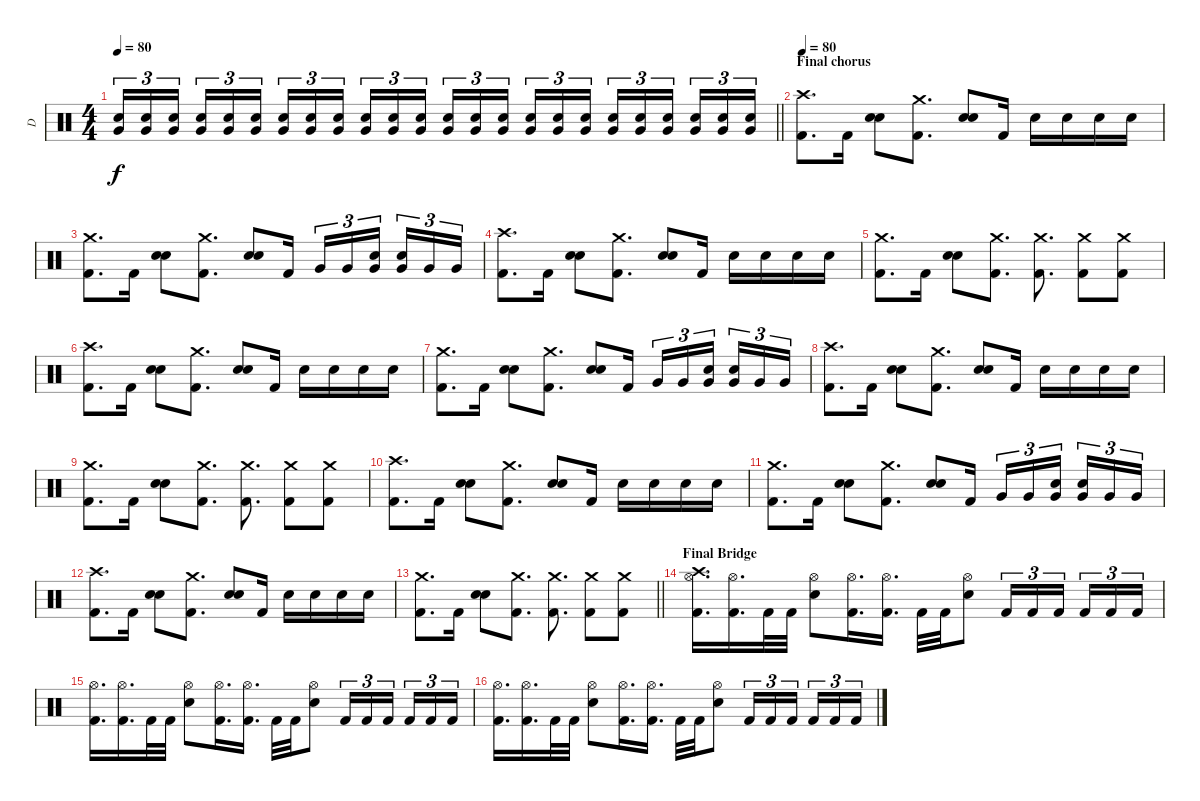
\track ("D" "D") {instrument percussion}
\staff {score}
\articulation defaults
\ts (4 4)
\tempo 80
\clef neutral
\barLineRight lightlight
\ks c
("Electric Snare (hit)" "Very Low Tom (hit)").16{tu (3 2) dy f volume 13} ("Electric Snare (hit)" "Very Low Tom (hit)").16{tu (3 2)} ("Electric Snare (hit)" "Very Low Tom (hit)").16{tu (3 2) beam splitsecondary} ("Electric Snare (hit)" "Very Low Tom (hit)").16{tu (3 2)} ("Electric Snare (hit)" "Very Low Tom (hit)").16{tu (3 2)} ("Electric Snare (hit)" "Very Low Tom (hit)").16{tu (3 2)} ("Electric Snare (hit)" "Very Low Tom (hit)").16{tu (3 2)} ("Electric Snare (hit)" "Very Low Tom (hit)").16{tu (3 2)} ("Electric Snare (hit)" "Very Low Tom (hit)").16{tu (3 2) beam splitsecondary} ("Electric Snare (hit)" "Very Low Tom (hit)").16{tu (3 2)} ("Electric Snare (hit)" "Very Low Tom (hit)").16{tu (3 2)} ("Electric Snare (hit)" "Very Low Tom (hit)").16{tu (3 2)} ("Electric Snare (hit)" "Very Low Tom (hit)").16{tu (3 2)} ("Electric Snare (hit)" "Very Low Tom (hit)").16{tu (3 2)} ("Electric Snare (hit)" "Very Low Tom (hit)").16{tu (3 2) beam splitsecondary} ("Electric Snare (hit)" "Very Low Tom (hit)").16{tu (3 2)} ("Electric Snare (hit)" "Very Low Tom (hit)").16{tu (3 2)} ("Electric Snare (hit)" "Very Low Tom (hit)").16{tu (3 2)} ("Electric Snare (hit)" "Very Low Tom (hit)").16{tu (3 2)} ("Electric Snare (hit)" "Very Low Tom (hit)").16{tu (3 2)} ("Electric Snare (hit)" "Very Low Tom (hit)").16{tu (3 2) beam splitsecondary} ("Electric Snare (hit)" "Very Low Tom (hit)").16{tu (3 2)} ("Electric Snare (hit)" "Very Low Tom (hit)").16{tu (3 2)} ("Electric Snare (hit)" "Very Low Tom (hit)").16{tu (3 2)} |
\section ("" "Final chorus")
\tempo 80
("Crash high (hit)" "Kick (hit) 2").8{d} "Kick (hit) 2".16 ("Electric Snare (hit)" "Electric Snare (hit)").8 ("Crash medium (hit)" "Kick (hit) 2").8{d} ("Electric Snare (hit)" "Electric Snare (hit)").8 "Kick (hit) 2".16 "Electric Snare (hit)".16 "Electric Snare (hit)".16 "Electric Snare (hit)".16 "Electric Snare (hit)".16 |
("Crash medium (hit)" "Kick (hit) 2").8{d} "Kick (hit) 2".16 ("Electric Snare (hit)" "Electric Snare (hit)").8 ("Crash medium (hit)" "Kick (hit) 2").8{d} ("Electric Snare (hit)" "Electric Snare (hit)").8 "Kick (hit) 2".16 "Very Low Tom (hit)".16{tu (3 2)} "Very Low Tom (hit)".16{tu (3 2)} ("Electric Snare (hit)" "Very Low Tom (hit)").16{tu (3 2) beam splitsecondary} ("Electric Snare (hit)" "Very Low Tom (hit)").16{tu (3 2)} "Very Low Tom (hit)".16{tu (3 2)} "Very Low Tom (hit)".16{tu (3 2)} |
("Crash high (hit)" "Kick (hit) 2").8{d} "Kick (hit) 2".16 ("Electric Snare (hit)" "Electric Snare (hit)").8 ("Crash medium (hit)" "Kick (hit) 2").8{d} ("Electric Snare (hit)" "Electric Snare (hit)").8 "Kick (hit) 2".16 "Electric Snare (hit)".16 "Electric Snare (hit)".16 "Electric Snare (hit)".16 "Electric Snare (hit)".16 |
("Crash medium (hit)" "Kick (hit) 2").8{d} "Kick (hit) 2".16 ("Electric Snare (hit)" "Electric Snare (hit)").8 ("Crash medium (hit)" "Kick (hit) 2").8{d} ("Crash medium (hit)" "Kick (hit) 2").8{d} ("Crash medium (hit)" "Kick (hit) 2").8 ("Crash medium (hit)" "Kick (hit) 2").8 |
("Crash high (hit)" "Kick (hit) 2").8{d} "Kick (hit) 2".16 ("Electric Snare (hit)" "Electric Snare (hit)").8 ("Crash medium (hit)" "Kick (hit) 2").8{d} ("Electric Snare (hit)" "Electric Snare (hit)").8 "Kick (hit) 2".16 "Electric Snare (hit)".16 "Electric Snare (hit)".16 "Electric Snare (hit)".16 "Electric Snare (hit)".16 |
("Crash medium (hit)" "Kick (hit) 2").8{d} "Kick (hit) 2".16 ("Electric Snare (hit)" "Electric Snare (hit)").8 ("Crash medium (hit)" "Kick (hit) 2").8{d} ("Electric Snare (hit)" "Electric Snare (hit)").8 "Kick (hit) 2".16 "Very Low Tom (hit)".16{tu (3 2)} "Very Low Tom (hit)".16{tu (3 2)} ("Electric Snare (hit)" "Very Low Tom (hit)").16{tu (3 2) beam splitsecondary} ("Electric Snare (hit)" "Very Low Tom (hit)").16{tu (3 2)} "Very Low Tom (hit)".16{tu (3 2)} "Very Low Tom (hit)".16{tu (3 2)} |
("Crash high (hit)" "Kick (hit) 2").8{d} "Kick (hit) 2".16 ("Electric Snare (hit)" "Electric Snare (hit)").8 ("Crash medium (hit)" "Kick (hit) 2").8{d} ("Electric Snare (hit)" "Electric Snare (hit)").8 "Kick (hit) 2".16 "Electric Snare (hit)".16 "Electric Snare (hit)".16 "Electric Snare (hit)".16 "Electric Snare (hit)".16 |
("Crash medium (hit)" "Kick (hit) 2").8{d} "Kick (hit) 2".16 ("Electric Snare (hit)" "Electric Snare (hit)").8 ("Crash medium (hit)" "Kick (hit) 2").8{d} ("Crash medium (hit)" "Kick (hit) 2").8{d} ("Crash medium (hit)" "Kick (hit) 2").8 ("Crash medium (hit)" "Kick (hit) 2").8 |
("Crash high (hit)" "Kick (hit) 2").8{d} "Kick (hit) 2".16 ("Electric Snare (hit)" "Electric Snare (hit)").8 ("Crash medium (hit)" "Kick (hit) 2").8{d} ("Electric Snare (hit)" "Electric Snare (hit)").8 "Kick (hit) 2".16 "Electric Snare (hit)".16 "Electric Snare (hit)".16 "Electric Snare (hit)".16 "Electric Snare (hit)".16 |
("Crash medium (hit)" "Kick (hit) 2").8{d} "Kick (hit) 2".16 ("Electric Snare (hit)" "Electric Snare (hit)").8 ("Crash medium (hit)" "Kick (hit) 2").8{d} ("Electric Snare (hit)" "Electric Snare (hit)").8 "Kick (hit) 2".16 "Very Low Tom (hit)".16{tu (3 2)} "Very Low Tom (hit)".16{tu (3 2)} ("Electric Snare (hit)" "Very Low Tom (hit)").16{tu (3 2) beam splitsecondary} ("Electric Snare (hit)" "Very Low Tom (hit)").16{tu (3 2)} "Very Low Tom (hit)".16{tu (3 2)} "Very Low Tom (hit)".16{tu (3 2)} |
("Crash high (hit)" "Kick (hit) 2").8{d} "Kick (hit) 2".16 ("Electric Snare (hit)" "Electric Snare (hit)").8 ("Crash medium (hit)" "Kick (hit) 2").8{d} ("Electric Snare (hit)" "Electric Snare (hit)").8 "Kick (hit) 2".16 "Electric Snare (hit)".16 "Electric Snare (hit)".16 "Electric Snare (hit)".16 "Electric Snare (hit)".16 |
\barLineRight lightlight
("Crash medium (hit)" "Kick (hit) 2").8{d} "Kick (hit) 2".16 ("Electric Snare (hit)" "Electric Snare (hit)").8 ("Crash medium (hit)" "Kick (hit) 2").8{d} ("Crash medium (hit)" "Kick (hit) 2").8{d} ("Crash medium (hit)" "Kick (hit) 2").8 ("Crash medium (hit)" "Kick (hit) 2").8 |
\section ("" "Final Bridge")
("Hi-Hat (open)" "Crash high (hit)" "Kick (hit) 2").16{d} ("Hi-Hat (open)" "Kick (hit) 2").16{d} "Kick (hit) 2".32 "Kick (hit) 2".32 ("Hi-Hat (open)" "Electric Snare (hit)").8 ("Hi-Hat (open)" "Kick (hit) 2").16{d} ("Hi-Hat (open)" "Kick (hit) 2").16{d} "Kick (hit) 2".32 "Kick (hit) 2".32 ("Hi-Hat (open)" "Electric Snare (hit)").8 "Kick (hit) 2".16{tu (3 2)} "Kick (hit) 2".16{tu (3 2)} "Kick (hit) 2".16{tu (3 2) beam splitsecondary} "Kick (hit) 2".16{tu (3 2)} "Kick (hit) 2".16{tu (3 2)} "Kick (hit) 2".16{tu (3 2)} |
("Hi-Hat (open)" "Kick (hit) 2").16{d} ("Hi-Hat (open)" "Kick (hit) 2").16{d} "Kick (hit) 2".32 "Kick (hit) 2".32 ("Hi-Hat (open)" "Electric Snare (hit)").8 ("Hi-Hat (open)" "Kick (hit) 2").16{d} ("Hi-Hat (open)" "Kick (hit) 2").16{d} "Kick (hit) 2".32 "Kick (hit) 2".32 ("Hi-Hat (open)" "Electric Snare (hit)").8 "Kick (hit) 2".16{tu (3 2)} "Kick (hit) 2".16{tu (3 2)} "Kick (hit) 2".16{tu (3 2) beam splitsecondary} "Kick (hit) 2".16{tu (3 2)} "Kick (hit) 2".16{tu (3 2)} "Kick (hit) 2".16{tu (3 2)} |
("Hi-Hat (open)" "Kick (hit) 2").16{d} ("Hi-Hat (open)" "Kick (hit) 2").16{d} "Kick (hit) 2".32 "Kick (hit) 2".32 ("Hi-Hat (open)" "Electric Snare (hit)").8 ("Hi-Hat (open)" "Kick (hit) 2").16{d} ("Hi-Hat (open)" "Kick (hit) 2").16{d} "Kick (hit) 2".32 "Kick (hit) 2".32 ("Hi-Hat (open)" "Electric Snare (hit)").8 "Kick (hit) 2".16{tu (3 2)} "Kick (hit) 2".16{tu (3 2)} "Kick (hit) 2".16{tu (3 2) beam splitsecondary} "Kick (hit) 2".16{tu (3 2)} "Kick (hit) 2".16{tu (3 2)} "Kick (hit) 2".16{tu (3 2)}
